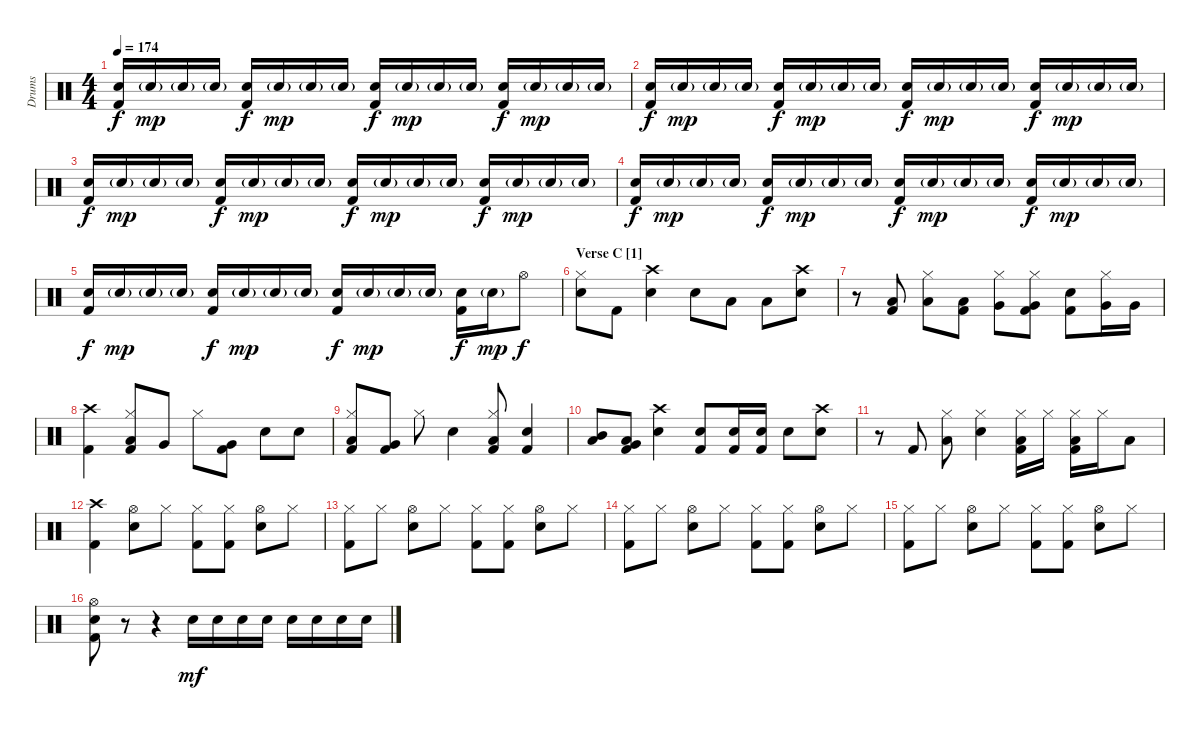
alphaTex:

\track ("Drums" "Drums") {instrument percussion}
\staff {score}
\articulation defaults
\ts (4 4)
\tempo 174
\clef neutral
\ks c
("Electric Snare (hit)" "Kick (hit) 2").16{dy f} "Electric Snare (hit)"{g}.16{dy mp} "Electric Snare (hit)"{g}.16 "Electric Snare (hit)"{g}.16 ("Electric Snare (hit)" "Kick (hit) 2").16{dy f} "Electric Snare (hit)"{g}.16{dy mp} "Electric Snare (hit)"{g}.16 "Electric Snare (hit)"{g}.16 ("Electric Snare (hit)" "Kick (hit) 2").16{dy f} "Electric Snare (hit)"{g}.16{dy mp} "Electric Snare (hit)"{g}.16 "Electric Snare (hit)"{g}.16 ("Electric Snare (hit)" "Kick (hit) 2").16{dy f} "Electric Snare (hit)"{g}.16{dy mp} "Electric Snare (hit)"{g}.16 "Electric Snare (hit)"{g}.16 |
("Electric Snare (hit)" "Kick (hit) 2").16{dy f} "Electric Snare (hit)"{g}.16{dy mp} "Electric Snare (hit)"{g}.16 "Electric Snare (hit)"{g}.16 ("Electric Snare (hit)" "Kick (hit) 2").16{dy f} "Electric Snare (hit)"{g}.16{dy mp} "Electric Snare (hit)"{g}.16 "Electric Snare (hit)"{g}.16 ("Electric Snare (hit)" "Kick (hit) 2").16{dy f} "Electric Snare (hit)"{g}.16{dy mp} "Electric Snare (hit)"{g}.16 "Electric Snare (hit)"{g}.16 ("Electric Snare (hit)" "Kick (hit) 2").16{dy f} "Electric Snare (hit)"{g}.16{dy mp} "Electric Snare (hit)"{g}.16 "Electric Snare (hit)"{g}.16 |
("Electric Snare (hit)" "Kick (hit) 2").16{dy f} "Electric Snare (hit)"{g}.16{dy mp} "Electric Snare (hit)"{g}.16 "Electric Snare (hit)"{g}.16 ("Electric Snare (hit)" "Kick (hit) 2").16{dy f} "Electric Snare (hit)"{g}.16{dy mp} "Electric Snare (hit)"{g}.16 "Electric Snare (hit)"{g}.16 ("Electric Snare (hit)" "Kick (hit) 2").16{dy f} "Electric Snare (hit)"{g}.16{dy mp} "Electric Snare (hit)"{g}.16 "Electric Snare (hit)"{g}.16 ("Electric Snare (hit)" "Kick (hit) 2").16{dy f} "Electric Snare (hit)"{g}.16{dy mp} "Electric Snare (hit)"{g}.16 "Electric Snare (hit)"{g}.16 |
("Electric Snare (hit)" "Kick (hit) 2").16{dy f} "Electric Snare (hit)"{g}.16{dy mp} "Electric Snare (hit)"{g}.16 "Electric Snare (hit)"{g}.16 ("Electric Snare (hit)" "Kick (hit) 2").16{dy f} "Electric Snare (hit)"{g}.16{dy mp} "Electric Snare (hit)"{g}.16 "Electric Snare (hit)"{g}.16 ("Electric Snare (hit)" "Kick (hit) 2").16{dy f} "Electric Snare (hit)"{g}.16{dy mp} "Electric Snare (hit)"{g}.16 "Electric Snare (hit)"{g}.16 ("Electric Snare (hit)" "Kick (hit) 2").16{dy f} "Electric Snare (hit)"{g}.16{dy mp} "Electric Snare (hit)"{g}.16 "Electric Snare (hit)"{g}.16 |
("Electric Snare (hit)" "Kick (hit) 2").16{dy f} "Electric Snare (hit)"{g}.16{dy mp} "Electric Snare (hit)"{g}.16 "Electric Snare (hit)"{g}.16 ("Electric Snare (hit)" "Kick (hit) 2").16{dy f} "Electric Snare (hit)"{g}.16{dy mp} "Electric Snare (hit)"{g}.16 "Electric Snare (hit)"{g}.16 ("Electric Snare (hit)" "Kick (hit) 2").16{dy f} "Electric Snare (hit)"{g}.16{dy mp} "Electric Snare (hit)"{g}.16 "Electric Snare (hit)"{g}.16 ("Electric Snare (hit)" "Kick (hit) 2").16{dy f} "Electric Snare (hit)"{g}.16{dy mp} "Hi-Hat (open)".8{dy f} |
\section ("" "Verse C [1]")
("Hi-Hat (closed)" "Electric Snare (hit)").8 "Kick (hit) 2".8 ("Crash high (hit)" "Electric Snare (hit)").4 "Electric Snare (hit)".8 "Low Tom (hit)".8 "Low Tom (hit)".8 ("Crash high (hit)" "Electric Snare (hit)").8 |
r.8 ("Low Tom (hit)" "Kick (hit) 2").8 ("Hi-Hat (closed)" "Low Tom (hit)").8 ("Low Tom (hit)" "Kick (hit) 2").8 ("Hi-Hat (closed)" "Very Low Tom (hit)").8 ("Hi-Hat (closed)" "Very Low Tom (hit)" "Kick (hit) 2").8 ("Electric Snare (hit)" "Kick (hit) 2").8 ("Hi-Hat (closed)" "Very Low Tom (hit)").16 "Very Low Tom (hit)".16 |
("Crash high (hit)" "Kick (hit) 2").4 ("Hi-Hat (closed)" "Low Tom (hit)" "Kick (hit) 2").8 "Very Low Tom (hit)".8 "Hi-Hat (closed)".8 ("Very Low Tom (hit)" "Kick (hit) 2").8 "Electric Snare (hit)".8 "Electric Snare (hit)".8 |
("Hi-Hat (closed)" "Low Tom (hit)" "Kick (hit) 2").8 ("Very Low Tom (hit)" "Kick (hit) 2").8 "Hi-Hat (closed)".8 "Electric Snare (hit)".4 ("Hi-Hat (closed)" "Low Tom (hit)" "Kick (hit) 2").8 ("Electric Snare (hit)" "Kick (hit) 2").4 |
("Mid Tom (hit)" "Low Tom (hit)").8 ("Low Tom (hit)" "Very Low Tom (hit)" "Kick (hit) 2").8 ("Crash high (hit)" "Electric Snare (hit)").4 ("Electric Snare (hit)" "Kick (hit) 2").8 ("Electric Snare (hit)" "Kick (hit) 2").16 ("Electric Snare (hit)" "Kick (hit) 2").16 "Electric Snare (hit)".8 ("Crash high (hit)" "Electric Snare (hit)").8 |
r.8 "Kick (hit) 2".8 ("Hi-Hat (closed)" "Low Tom (hit)").8 ("Hi-Hat (closed)" "Electric Snare (hit)").4 ("Hi-Hat (closed)" "Low Tom (hit)" "Kick (hit) 2").16 "Hi-Hat (closed)".16 ("Hi-Hat (closed)" "Low Tom (hit)" "Kick (hit) 2").16 "Hi-Hat (closed)".16 "Low Tom (hit)".8 |
("Crash high (hit)" "Kick (hit) 2").4 ("Hi-Hat (open)" "Electric Snare (hit)").8 "Hi-Hat (closed)".8 ("Hi-Hat (closed)" "Kick (hit) 2").8 ("Hi-Hat (closed)" "Kick (hit) 2").8 ("Hi-Hat (open)" "Electric Snare (hit)").8 "Hi-Hat (closed)".8 |
("Hi-Hat (closed)" "Kick (hit) 2").8 "Hi-Hat (closed)".8 ("Hi-Hat (open)" "Electric Snare (hit)").8 "Hi-Hat (closed)".8 ("Hi-Hat (closed)" "Kick (hit) 2").8 ("Hi-Hat (closed)" "Kick (hit) 2").8 ("Hi-Hat (open)" "Electric Snare (hit)").8 "Hi-Hat (closed)".8 |
("Hi-Hat (closed)" "Kick (hit) 2").8 "Hi-Hat (closed)".8 ("Hi-Hat (open)" "Electric Snare (hit)").8 "Hi-Hat (closed)".8 ("Hi-Hat (closed)" "Kick (hit) 2").8 ("Hi-Hat (closed)" "Kick (hit) 2").8 ("Hi-Hat (open)" "Electric Snare (hit)").8 "Hi-Hat (closed)".8 |
("Hi-Hat (closed)" "Kick (hit) 2").8 "Hi-Hat (closed)".8 ("Hi-Hat (open)" "Electric Snare (hit)").8 "Hi-Hat (closed)".8 ("Hi-Hat (closed)" "Kick (hit) 2").8 ("Hi-Hat (closed)" "Kick (hit) 2").8 ("Hi-Hat (open)" "Electric Snare (hit)").8 "Hi-Hat (closed)".8 |
("Hi-Hat (open)" "Electric Snare (hit)" "Kick (hit) 2").8 r.8 r.4 "Electric Snare (hit)".16{dy mf} "Electric Snare (hit)".16 "Electric Snare (hit)".16 "Electric Snare (hit)".16 "Electric Snare (hit)".16 "Electric Snare (hit)".16 "Electric Snare (hit)".16 "Electric Snare (hit)".16
